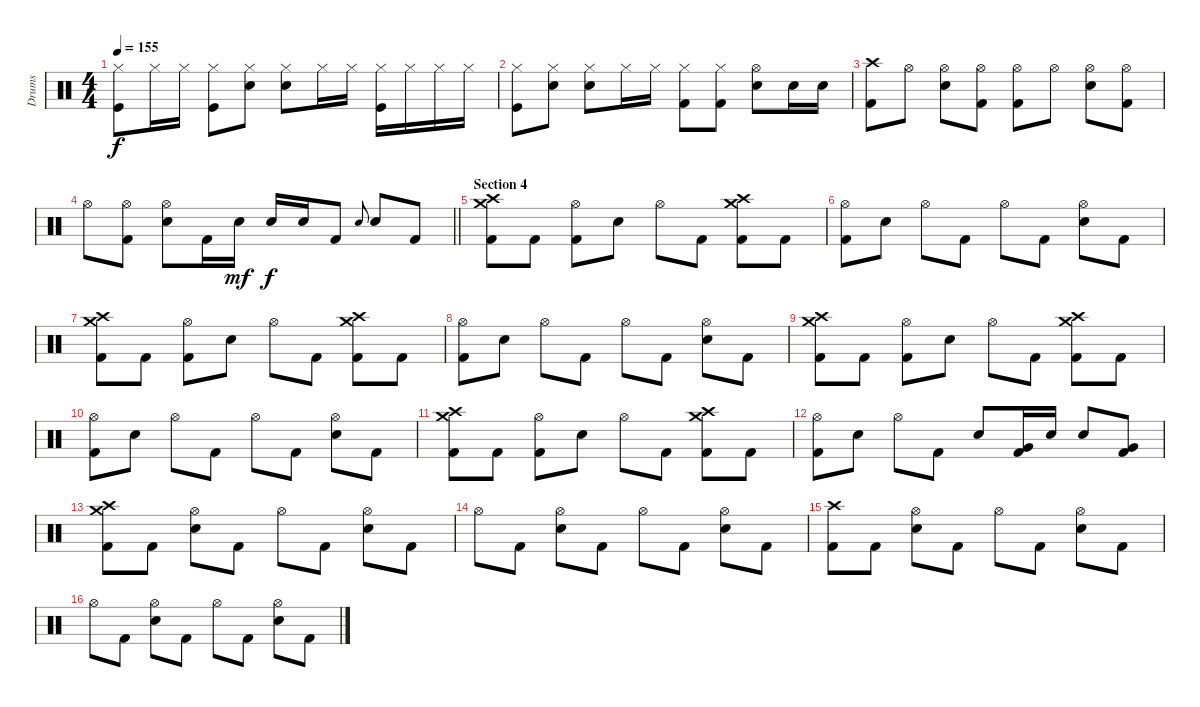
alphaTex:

\track ("Drums" "Drums") {instrument percussion}
\staff {score}
\articulation defaults
\ts (4 4)
\tempo 155
\clef neutral
\ks c
("Hi-Hat (closed)" "Kick (hit)").8{dy f} "Hi-Hat (closed)".16 "Hi-Hat (closed)".16 ("Hi-Hat (closed)" "Kick (hit)").8 ("Hi-Hat (closed)" "Electric Snare (hit)").8 ("Hi-Hat (closed)" "Electric Snare (hit)").8 "Hi-Hat (closed)".16 "Hi-Hat (closed)".16 ("Hi-Hat (closed)" "Kick (hit)").16 "Hi-Hat (closed)".16 "Hi-Hat (closed)".16 "Hi-Hat (closed)".16 |
("Hi-Hat (closed)" "Kick (hit)").8 ("Hi-Hat (closed)" "Electric Snare (hit)").8 ("Hi-Hat (closed)" "Electric Snare (hit)").8 "Hi-Hat (closed)".16 "Hi-Hat (closed)".16 ("Hi-Hat (closed)" "Kick (hit) 2").8 ("Hi-Hat (closed)" "Kick (hit) 2").8 ("Hi-Hat (open)" "Electric Snare (hit)").8 "Electric Snare (hit)".16 "Electric Snare (hit)".16 |
("Crash high (hit)" "Kick (hit) 2").8 "Hi-Hat (open)".8 ("Hi-Hat (open)" "Electric Snare (hit)").8 ("Hi-Hat (open)" "Kick (hit) 2").8 ("Hi-Hat (open)" "Kick (hit) 2").8 "Hi-Hat (open)".8 ("Hi-Hat (open)" "Electric Snare (hit)").8 ("Hi-Hat (open)" "Kick (hit) 2").8 |
\barLineRight lightlight "Hi-Hat (open)".8
("Hi-Hat (open)" "Kick (hit) 2").8 ("Hi-Hat (open)" "Electric Snare (hit)").8 "Kick (hit) 2".16 "Electric Snare (hit)".16{dy mf} "Electric Snare (hit)".16{dy f} "Electric Snare (hit)".16 "Kick (hit) 2".8 "Electric Snare (hit)".8{gr onbeat} "Electric Snare (hit)".8 "Kick (hit) 2".8 |
\section ("" "Section 4")
("Crash medium (hit)" "Crash high (hit)" "Kick (hit) 2").8 "Kick (hit) 2".8 ("Hi-Hat (open)" "Kick (hit) 2").8 "Electric Snare (hit)".8 "Hi-Hat (open)".8 "Kick (hit) 2".8 ("Crash high (hit)" "Crash medium (hit)" "Kick (hit) 2").8 "Kick (hit) 2".8 |
("Hi-Hat (open)" "Kick (hit) 2").8 "Electric Snare (hit)".8 "Hi-Hat (open)".8 "Kick (hit) 2".8 "Hi-Hat (open)".8 "Kick (hit) 2".8 ("Hi-Hat (open)" "Electric Snare (hit)").8 "Kick (hit) 2".8 |
("Crash medium (hit)" "Crash high (hit)" "Kick (hit) 2").8 "Kick (hit) 2".8 ("Hi-Hat (open)" "Kick (hit) 2").8 "Electric Snare (hit)".8 "Hi-Hat (open)".8 "Kick (hit) 2".8 ("Crash high (hit)" "Crash medium (hit)" "Kick (hit) 2").8 "Kick (hit) 2".8 |
("Hi-Hat (open)" "Kick (hit) 2").8 "Electric Snare (hit)".8 "Hi-Hat (open)".8 "Kick (hit) 2".8 "Hi-Hat (open)".8 "Kick (hit) 2".8 ("Hi-Hat (open)" "Electric Snare (hit)").8 "Kick (hit) 2".8 |
("Crash medium (hit)" "Crash high (hit)" "Kick (hit) 2").8 "Kick (hit) 2".8 ("Hi-Hat (open)" "Kick (hit) 2").8 "Electric Snare (hit)".8 "Hi-Hat (open)".8 "Kick (hit) 2".8 ("Crash high (hit)" "Crash medium (hit)" "Kick (hit) 2").8 "Kick (hit) 2".8 |
("Hi-Hat (open)" "Kick (hit) 2").8 "Electric Snare (hit)".8 "Hi-Hat (open)".8 "Kick (hit) 2".8 "Hi-Hat (open)".8 "Kick (hit) 2".8 ("Hi-Hat (open)" "Electric Snare (hit)").8 "Kick (hit) 2".8 |
("Crash medium (hit)" "Crash high (hit)" "Kick (hit) 2").8 "Kick (hit) 2".8 ("Hi-Hat (open)" "Kick (hit) 2").8 "Electric Snare (hit)".8 "Hi-Hat (open)".8 "Kick (hit) 2".8 ("Crash high (hit)" "Crash medium (hit)" "Kick (hit) 2").8 "Kick (hit) 2".8 |
("Hi-Hat (open)" "Kick (hit) 2").8 "Electric Snare (hit)".8 "Hi-Hat (open)".8 "Kick (hit) 2".8 "Electric Snare (hit)".8 ("Very Low Tom (hit)" "Kick (hit) 2").16 "Electric Snare (hit)".16 "Electric Snare (hit)".8 ("Very Low Tom (hit)" "Kick (hit) 2").8 |
("Crash high (hit)" "Crash medium (hit)" "Kick (hit) 2").8 "Kick (hit) 2".8 ("Hi-Hat (open)" "Electric Snare (hit)").8 "Kick (hit) 2".8 "Hi-Hat (open)".8 "Kick (hit) 2".8 ("Hi-Hat (open)" "Electric Snare (hit)").8 "Kick (hit) 2".8 |
"Hi-Hat (open)".8 "Kick (hit) 2".8 ("Hi-Hat (open)" "Electric Snare (hit)").8 "Kick (hit) 2".8 "Hi-Hat (open)".8 "Kick (hit) 2".8 ("Hi-Hat (open)" "Electric Snare (hit)").8 "Kick (hit) 2".8 |
("Crash high (hit)" "Kick (hit) 2").8 "Kick (hit) 2".8 ("Hi-Hat (open)" "Electric Snare (hit)").8 "Kick (hit) 2".8 "Hi-Hat (open)".8 "Kick (hit) 2".8 ("Hi-Hat (open)" "Electric Snare (hit)").8 "Kick (hit) 2".8 |
"Hi-Hat (open)".8 "Kick (hit) 2".8 ("Hi-Hat (open)" "Electric Snare (hit)").8 "Kick (hit) 2".8 "Hi-Hat (open)".8 "Kick (hit) 2".8 ("Hi-Hat (open)" "Electric Snare (hit)").8 "Kick (hit) 2".8
